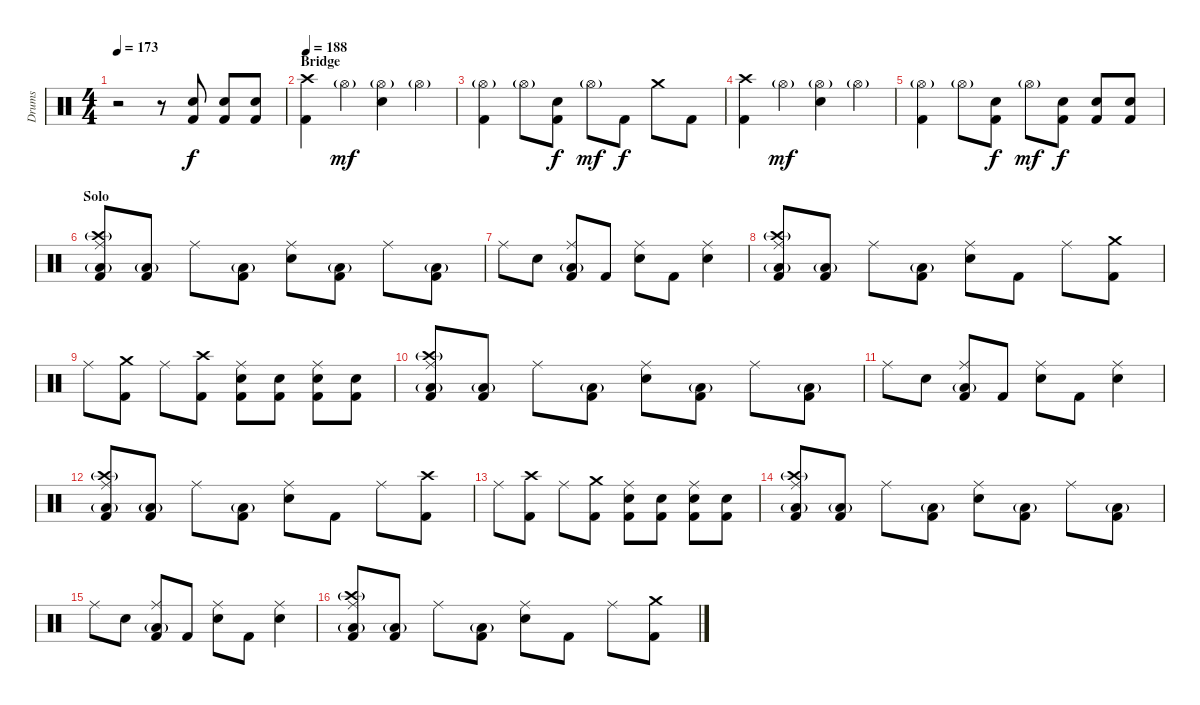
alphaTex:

\track ("Drums" "Drums") {instrument percussion}
\staff {score}
\articulation defaults
\ts (4 4)
\tempo 173
\clef neutral
\ks c
r.2{dy f} r.8 ("Snare (hit) 2" "Kick (hit) 2").8 ("Snare (hit) 2" "Kick (hit) 2").8 ("Snare (hit) 2" "Kick (hit) 2").8 |
\section ("" "Bridge")
\tempo 188
("Crash high (hit)" "Kick (hit) 2").4 "Hi-Hat (open)"{g}.4{dy mf} ("Hi-Hat (open)"{g} "Snare (hit) 2").4 "Hi-Hat (open)"{g}.4 |
("Hi-Hat (open)"{g} "Kick (hit) 2").4 "Hi-Hat (open)"{g}.8 ("Snare (hit) 2" "Kick (hit) 2").8{dy f} "Hi-Hat (open)"{g}.8{dy mf} "Kick (hit) 2".8{dy f} "Crash medium (hit)".8 "Kick (hit) 2".8 |
("Crash high (hit)" "Kick (hit) 2").4 "Hi-Hat (open)"{g}.4{dy mf} ("Hi-Hat (open)"{g} "Snare (hit) 2").4 "Hi-Hat (open)"{g}.4 |
("Hi-Hat (open)"{g} "Kick (hit) 2").4 "Hi-Hat (open)"{g}.8 ("Snare (hit) 2" "Kick (hit) 2").8{dy f} "Hi-Hat (open)"{g}.8{dy mf} ("Snare (hit) 2" "Kick (hit) 2").8{dy f} ("Snare (hit) 2" "Kick (hit) 2").8 ("Snare (hit) 2" "Kick (hit) 2").8 |
\section ("" "Solo")
("Crash high (hit)"{g} "Ride (middle)" "Low Floor Tom (hit)"{g} "Kick (hit) 2").8 ("Low Floor Tom (hit)"{g} "Kick (hit) 2").8 "Ride (middle)".8 ("Low Floor Tom (hit)"{g} "Kick (hit) 2").8 ("Ride (middle)" "Electric Snare (hit)").8 ("Low Floor Tom (hit)"{g} "Kick (hit) 2").8 "Ride (middle)".8 ("Low Floor Tom (hit)"{g} "Kick (hit) 2").8 |
"Ride (middle)".8 "Electric Snare (hit)".8 ("Ride (middle)" "Low Floor Tom (hit)"{g} "Kick (hit) 2").8 "Kick (hit) 2".8 ("Ride (middle)" "Electric Snare (hit)").8 "Kick (hit) 2".8 ("Ride (middle)" "Electric Snare (hit)").4 |
("Crash high (hit)"{g} "Ride (middle)" "Low Floor Tom (hit)"{g} "Kick (hit) 2").8 ("Low Floor Tom (hit)"{g} "Kick (hit) 2").8 "Ride (middle)".8 ("Low Floor Tom (hit)"{g} "Kick (hit) 2").8 ("Ride (middle)" "Electric Snare (hit)").8 "Kick (hit) 2".8 "Ride (middle)".8 ("Crash medium (hit)" "Kick (hit) 2").8 |
"Ride (middle)".8 ("Crash medium (hit)" "Kick (hit) 2").8 "Ride (middle)".8 ("Crash high (hit)" "Kick (hit) 2").8 ("Ride (middle)" "Snare (hit) 2" "Kick (hit) 2").8 ("Snare (hit) 2" "Kick (hit) 2").8 ("Ride (middle)" "Snare (hit) 2" "Kick (hit) 2").8 ("Snare (hit) 2" "Kick (hit) 2").8 |
("Crash high (hit)"{g} "Ride (middle)" "Low Floor Tom (hit)"{g} "Kick (hit) 2").8 ("Low Floor Tom (hit)"{g} "Kick (hit) 2").8 "Ride (middle)".8 ("Low Floor Tom (hit)"{g} "Kick (hit) 2").8 ("Ride (middle)" "Electric Snare (hit)").8 ("Low Floor Tom (hit)"{g} "Kick (hit) 2").8 "Ride (middle)".8 ("Low Floor Tom (hit)"{g} "Kick (hit) 2").8 |
"Ride (middle)".8 "Electric Snare (hit)".8 ("Ride (middle)" "Low Floor Tom (hit)"{g} "Kick (hit) 2").8 "Kick (hit) 2".8 ("Ride (middle)" "Electric Snare (hit)").8 "Kick (hit) 2".8 ("Ride (middle)" "Electric Snare (hit)").4 |
("Crash high (hit)"{g} "Ride (middle)" "Low Floor Tom (hit)"{g} "Kick (hit) 2").8 ("Low Floor Tom (hit)"{g} "Kick (hit) 2").8 "Ride (middle)".8 ("Low Floor Tom (hit)"{g} "Kick (hit) 2").8 ("Ride (middle)" "Electric Snare (hit)").8 "Kick (hit) 2".8 "Ride (middle)".8 ("Crash high (hit)" "Kick (hit) 2").8 |
"Ride (middle)".8 ("Crash high (hit)" "Kick (hit) 2").8 "Ride (middle)".8 ("Crash medium (hit)" "Kick (hit) 2").8 ("Ride (middle)" "Snare (hit) 2" "Kick (hit) 2").8 ("Snare (hit) 2" "Kick (hit) 2").8 ("Ride (middle)" "Snare (hit) 2" "Kick (hit) 2").8 ("Snare (hit) 2" "Kick (hit) 2").8 |
("Crash high (hit)"{g} "Ride (middle)" "Low Floor Tom (hit)"{g} "Kick (hit) 2").8 ("Low Floor Tom (hit)"{g} "Kick (hit) 2").8 "Ride (middle)".8 ("Low Floor Tom (hit)"{g} "Kick (hit) 2").8 ("Ride (middle)" "Electric Snare (hit)").8 ("Low Floor Tom (hit)"{g} "Kick (hit) 2").8 "Ride (middle)".8 ("Low Floor Tom (hit)"{g} "Kick (hit) 2").8 |
"Ride (middle)".8 "Electric Snare (hit)".8 ("Ride (middle)" "Low Floor Tom (hit)"{g} "Kick (hit) 2").8 "Kick (hit) 2".8 ("Ride (middle)" "Electric Snare (hit)").8 "Kick (hit) 2".8 ("Ride (middle)" "Electric Snare (hit)").4 |
("Crash high (hit)"{g} "Ride (middle)" "Low Floor Tom (hit)"{g} "Kick (hit) 2").8 ("Low Floor Tom (hit)"{g} "Kick (hit) 2").8 "Ride (middle)".8 ("Low Floor Tom (hit)"{g} "Kick (hit) 2").8 ("Ride (middle)" "Electric Snare (hit)").8 "Kick (hit) 2".8 "Ride (middle)".8 ("Crash medium (hit)" "Kick (hit) 2").8
